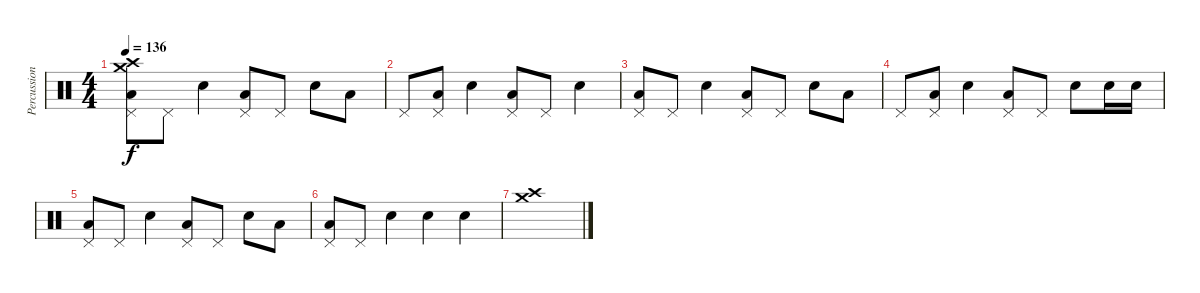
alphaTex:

\track ("Percussions" "Percussion") {instrument percussion}
\staff {score}
\articulation defaults
\ts (4 4)
\tempo 136
\clef neutral
\ks c
("Low Floor Tom (hit)" "Pedal Hi-Hat (hit)" "Crash high (hit)" "Crash medium (hit)").8{dy f} "Pedal Hi-Hat (hit)".8 "Snare (hit) 2".4 ("Low Floor Tom (hit)" "Pedal Hi-Hat (hit)").8 "Pedal Hi-Hat (hit)".8 "Snare (hit) 2".8 "Low Floor Tom (hit)".8 |
"Pedal Hi-Hat (hit)".8 ("Low Floor Tom (hit)" "Pedal Hi-Hat (hit)").8 "Snare (hit) 2".4 ("Low Floor Tom (hit)" "Pedal Hi-Hat (hit)").8 "Pedal Hi-Hat (hit)".8 "Snare (hit) 2".4 |
("Low Floor Tom (hit)" "Pedal Hi-Hat (hit)").8 "Pedal Hi-Hat (hit)".8 "Snare (hit) 2".4 ("Low Floor Tom (hit)" "Pedal Hi-Hat (hit)").8 "Pedal Hi-Hat (hit)".8 "Snare (hit) 2".8 "Low Floor Tom (hit)".8 |
"Pedal Hi-Hat (hit)".8 ("Low Floor Tom (hit)" "Pedal Hi-Hat (hit)").8 "Snare (hit) 2".4 ("Low Floor Tom (hit)" "Pedal Hi-Hat (hit)").8 "Pedal Hi-Hat (hit)".8 "Snare (hit) 2".8 "Snare (hit) 2".16 "Snare (hit) 2".16 |
("Low Floor Tom (hit)" "Pedal Hi-Hat (hit)").8 "Pedal Hi-Hat (hit)".8 "Snare (hit) 2".4 ("Low Floor Tom (hit)" "Pedal Hi-Hat (hit)").8 "Pedal Hi-Hat (hit)".8 "Snare (hit) 2".8 "Low Floor Tom (hit)".8 |
("Low Floor Tom (hit)" "Pedal Hi-Hat (hit)").8 "Pedal Hi-Hat (hit)".8 "Snare (hit) 2".4 "Snare (hit) 2".4 "Snare (hit) 2".4 |
("Crash medium (hit)" "Crash high (hit)").1
